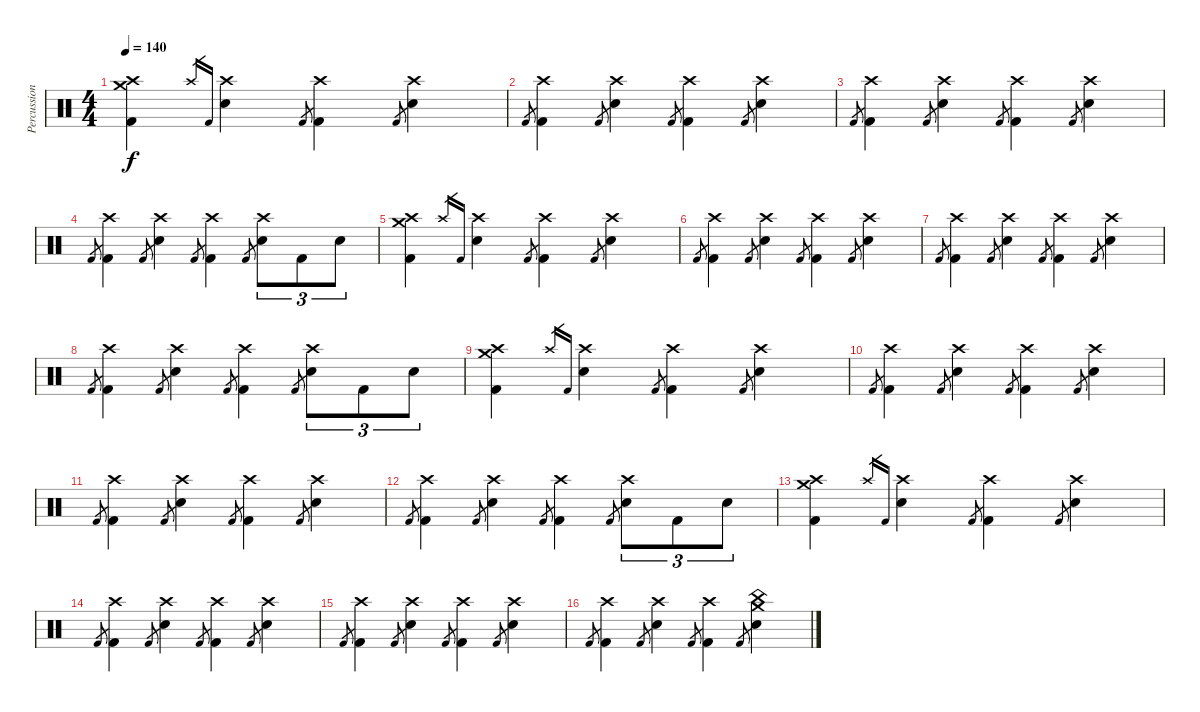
\track ("Percussion" "Percussion") {instrument percussion}
\staff {score}
\articulation defaults
\ts (4 4)
\tempo 140
\clef neutral
\ks c
("Crash medium (hit)" "Crash high (hit)" "Kick (hit) 2").4{dy f} "Crash high (hit)".16{gr} "Kick (hit) 2".16{gr} ("Crash high (hit)" "Electric Snare (hit)").4 "Kick (hit) 2".8{gr} ("Crash high (hit)" "Kick (hit) 2").4 "Kick (hit) 2".8{gr} ("Crash high (hit)" "Electric Snare (hit)").4 |
"Kick (hit) 2".8{gr} ("Crash high (hit)" "Kick (hit) 2").4 "Kick (hit) 2".8{gr} ("Crash high (hit)" "Electric Snare (hit)").4 "Kick (hit) 2".8{gr} ("Crash high (hit)" "Kick (hit) 2").4 "Kick (hit) 2".8{gr} ("Crash high (hit)" "Electric Snare (hit)").4 |
"Kick (hit) 2".8{gr} ("Crash high (hit)" "Kick (hit) 2").4 "Kick (hit) 2".8{gr} ("Crash high (hit)" "Electric Snare (hit)").4 "Kick (hit) 2".8{gr} ("Crash high (hit)" "Kick (hit) 2").4 "Kick (hit) 2".8{gr} ("Crash high (hit)" "Electric Snare (hit)").4 |
"Kick (hit) 2".8{gr} ("Crash high (hit)" "Kick (hit) 2").4 "Kick (hit) 2".8{gr} ("Crash high (hit)" "Electric Snare (hit)").4 "Kick (hit) 2".8{gr} ("Crash high (hit)" "Kick (hit) 2").4 "Kick (hit) 2".8{gr} ("Crash high (hit)" "Electric Snare (hit)").8{tu (3 2)} "Kick (hit) 2".8{tu (3 2)} "Electric Snare (hit)".8{tu (3 2)} |
("Crash medium (hit)" "Crash high (hit)" "Kick (hit) 2").4 "Crash high (hit)".16{gr} "Kick (hit) 2".16{gr} ("Crash high (hit)" "Electric Snare (hit)").4 "Kick (hit) 2".8{gr} ("Crash high (hit)" "Kick (hit) 2").4 "Kick (hit) 2".8{gr} ("Crash high (hit)" "Electric Snare (hit)").4 |
"Kick (hit) 2".8{gr} ("Crash high (hit)" "Kick (hit) 2").4 "Kick (hit) 2".8{gr} ("Crash high (hit)" "Electric Snare (hit)").4 "Kick (hit) 2".8{gr} ("Crash high (hit)" "Kick (hit) 2").4 "Kick (hit) 2".8{gr} ("Crash high (hit)" "Electric Snare (hit)").4 |
"Kick (hit) 2".8{gr} ("Crash high (hit)" "Kick (hit) 2").4 "Kick (hit) 2".8{gr} ("Crash high (hit)" "Electric Snare (hit)").4 "Kick (hit) 2".8{gr} ("Crash high (hit)" "Kick (hit) 2").4 "Kick (hit) 2".8{gr} ("Crash high (hit)" "Electric Snare (hit)").4 |
"Kick (hit) 2".8{gr} ("Crash high (hit)" "Kick (hit) 2").4 "Kick (hit) 2".8{gr} ("Crash high (hit)" "Electric Snare (hit)").4 "Kick (hit) 2".8{gr} ("Crash high (hit)" "Kick (hit) 2").4 "Kick (hit) 2".8{gr} ("Crash high (hit)" "Electric Snare (hit)").8{tu (3 2)} "Kick (hit) 2".8{tu (3 2)} "Electric Snare (hit)".8{tu (3 2)} |
("Crash medium (hit)" "Crash high (hit)" "Kick (hit) 2").4 "Crash high (hit)".16{gr} "Kick (hit) 2".16{gr} ("Crash high (hit)" "Electric Snare (hit)").4 "Kick (hit) 2".8{gr} ("Crash high (hit)" "Kick (hit) 2").4 "Kick (hit) 2".8{gr} ("Crash high (hit)" "Electric Snare (hit)").4 |
"Kick (hit) 2".8{gr} ("Crash high (hit)" "Kick (hit) 2").4 "Kick (hit) 2".8{gr} ("Crash high (hit)" "Electric Snare (hit)").4 "Kick (hit) 2".8{gr} ("Crash high (hit)" "Kick (hit) 2").4 "Kick (hit) 2".8{gr} ("Crash high (hit)" "Electric Snare (hit)").4 |
"Kick (hit) 2".8{gr} ("Crash high (hit)" "Kick (hit) 2").4 "Kick (hit) 2".8{gr} ("Crash high (hit)" "Electric Snare (hit)").4 "Kick (hit) 2".8{gr} ("Crash high (hit)" "Kick (hit) 2").4 "Kick (hit) 2".8{gr} ("Crash high (hit)" "Electric Snare (hit)").4 |
"Kick (hit) 2".8{gr} ("Crash high (hit)" "Kick (hit) 2").4 "Kick (hit) 2".8{gr} ("Crash high (hit)" "Electric Snare (hit)").4 "Kick (hit) 2".8{gr} ("Crash high (hit)" "Kick (hit) 2").4 "Kick (hit) 2".8{gr} ("Crash high (hit)" "Electric Snare (hit)").8{tu (3 2)} "Kick (hit) 2".8{tu (3 2)} "Electric Snare (hit)".8{tu (3 2)} |
("Crash medium (hit)" "Crash high (hit)" "Kick (hit) 2").4 "Crash high (hit)".16{gr} "Kick (hit) 2".16{gr} ("Crash high (hit)" "Electric Snare (hit)").4 "Kick (hit) 2".8{gr} ("Crash high (hit)" "Kick (hit) 2").4 "Kick (hit) 2".8{gr} ("Crash high (hit)" "Electric Snare (hit)").4 |
"Kick (hit) 2".8{gr} ("Crash high (hit)" "Kick (hit) 2").4 "Kick (hit) 2".8{gr} ("Crash high (hit)" "Electric Snare (hit)").4 "Kick (hit) 2".8{gr} ("Crash high (hit)" "Kick (hit) 2").4 "Kick (hit) 2".8{gr} ("Crash high (hit)" "Electric Snare (hit)").4 |
"Kick (hit) 2".8{gr} ("Crash high (hit)" "Kick (hit) 2").4 "Kick (hit) 2".8{gr} ("Crash high (hit)" "Electric Snare (hit)").4 "Kick (hit) 2".8{gr} ("Crash high (hit)" "Kick (hit) 2").4 "Kick (hit) 2".8{gr} ("Crash high (hit)" "Electric Snare (hit)").4 |
"Kick (hit) 2".8{gr} ("Crash high (hit)" "Kick (hit) 2").4 "Kick (hit) 2".8{gr} ("Crash high (hit)" "Electric Snare (hit)").4 "Kick (hit) 2".8{gr} ("Crash high (hit)" "Kick (hit) 2").4 "Kick (hit) 2".8{gr} ("Crash medium (hit)" "China (hit)" "Electric Snare (hit)").4
